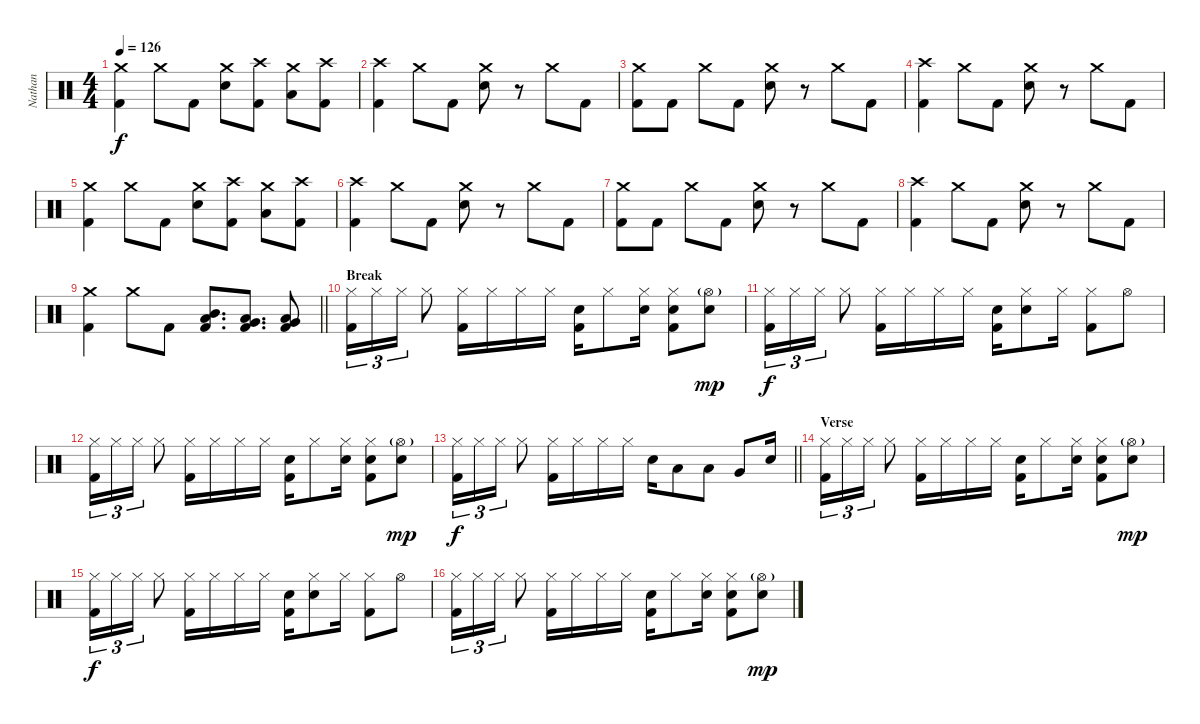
\track ("Nathan" "Nathan") {instrument percussion}
\staff {score}
\articulation defaults
\ts (4 4)
\tempo 126
\clef neutral
\ks c
("Crash medium (hit)" "Kick (hit) 2").4{dy f} "Crash medium (hit)".8 "Kick (hit) 2".8 ("Crash medium (hit)" "Electric Snare (hit)").8 ("Crash high (hit)" "Kick (hit) 2").8 ("Crash medium (hit)" "Low Floor Tom (hit)").8 ("Crash high (hit)" "Kick (hit) 2").8 |
("Crash high (hit)" "Kick (hit) 2").4 "Crash medium (hit)".8 "Kick (hit) 2".8 ("Crash medium (hit)" "Electric Snare (hit)").8 r.8 "Crash medium (hit)".8 "Kick (hit) 2".8 |
("Crash medium (hit)" "Kick (hit) 2").8 "Kick (hit) 2".8 "Crash medium (hit)".8 "Kick (hit) 2".8 ("Crash medium (hit)" "Electric Snare (hit)").8 r.8 "Crash medium (hit)".8 "Kick (hit) 2".8 |
("Crash high (hit)" "Kick (hit) 2").4 "Crash medium (hit)".8 "Kick (hit) 2".8 ("Crash medium (hit)" "Electric Snare (hit)").8 r.8 "Crash medium (hit)".8 "Kick (hit) 2".8 |
("Crash medium (hit)" "Kick (hit) 2").4 "Crash medium (hit)".8 "Kick (hit) 2".8 ("Crash medium (hit)" "Electric Snare (hit)").8 ("Crash high (hit)" "Kick (hit) 2").8 ("Crash medium (hit)" "Low Floor Tom (hit)").8 ("Crash high (hit)" "Kick (hit) 2").8 |
("Crash high (hit)" "Kick (hit) 2").4 "Crash medium (hit)".8 "Kick (hit) 2".8 ("Crash medium (hit)" "Electric Snare (hit)").8 r.8 "Crash medium (hit)".8 "Kick (hit) 2".8 |
("Crash medium (hit)" "Kick (hit) 2").8 "Kick (hit) 2".8 "Crash medium (hit)".8 "Kick (hit) 2".8 ("Crash medium (hit)" "Electric Snare (hit)").8 r.8 "Crash medium (hit)".8 "Kick (hit) 2".8 |
("Crash high (hit)" "Kick (hit) 2").4 "Crash medium (hit)".8 "Kick (hit) 2".8 ("Crash medium (hit)" "Electric Snare (hit)").8 r.8 "Crash medium (hit)".8 "Kick (hit) 2".8 |
\barLineRight lightlight
("Crash medium (hit)" "Kick (hit) 2").4 "Crash medium (hit)".8 "Kick (hit) 2".8 ("Mid Tom (hit)" "Low Tom (hit)" "Kick (hit) 2").8{d} ("Low Tom (hit)" "Very Low Tom (hit)" "Kick (hit) 2").8{d} ("Very Low Tom (hit)" "Low Floor Tom (hit)" "Kick (hit) 2").8 |
\section ("" "Break")
("Hi-Hat (closed)" "Kick (hit) 2").16{tu (3 2)} "Hi-Hat (closed)".16{tu (3 2)} "Hi-Hat (closed)".16{tu (3 2)} "Hi-Hat (closed)".8 ("Hi-Hat (closed)" "Kick (hit) 2").16 "Hi-Hat (closed)".16 "Hi-Hat (closed)".16 "Hi-Hat (closed)".16 ("Electric Snare (hit)" "Kick (hit) 2").16 "Hi-Hat (closed)".8 ("Hi-Hat (closed)" "Electric Snare (hit)").16 ("Hi-Hat (closed)" "Electric Snare (hit)" "Kick (hit) 2").8 ("Hi-Hat (open)"{g} "Electric Snare (hit)").8{dy mp} |
("Hi-Hat (closed)" "Kick (hit) 2").16{tu (3 2) dy f} "Hi-Hat (closed)".16{tu (3 2)} "Hi-Hat (closed)".16{tu (3 2)} "Hi-Hat (closed)".8 ("Hi-Hat (closed)" "Kick (hit) 2").16 "Hi-Hat (closed)".16 "Hi-Hat (closed)".16 "Hi-Hat (closed)".16 ("Electric Snare (hit)" "Kick (hit) 2").16 ("Hi-Hat (closed)" "Electric Snare (hit)").8 "Hi-Hat (closed)".16 ("Hi-Hat (closed)" "Kick (hit) 2").8 "Hi-Hat (open)".8 |
("Hi-Hat (closed)" "Kick (hit) 2").16{tu (3 2)} "Hi-Hat (closed)".16{tu (3 2)} "Hi-Hat (closed)".16{tu (3 2)} "Hi-Hat (closed)".8 ("Hi-Hat (closed)" "Kick (hit) 2").16 "Hi-Hat (closed)".16 "Hi-Hat (closed)".16 "Hi-Hat (closed)".16 ("Electric Snare (hit)" "Kick (hit) 2").16 "Hi-Hat (closed)".8 ("Hi-Hat (closed)" "Electric Snare (hit)").16 ("Hi-Hat (closed)" "Electric Snare (hit)" "Kick (hit) 2").8 ("Hi-Hat (open)"{g} "Electric Snare (hit)").8{dy mp} |
\barLineRight lightlight
("Hi-Hat (closed)" "Kick (hit) 2").16{tu (3 2) dy f} "Hi-Hat (closed)".16{tu (3 2)} "Hi-Hat (closed)".16{tu (3 2)} "Hi-Hat (closed)".8 ("Hi-Hat (closed)" "Kick (hit) 2").16 "Hi-Hat (closed)".16 "Hi-Hat (closed)".16 "Hi-Hat (closed)".16 "Electric Snare (hit)".16 "Low Tom (hit)".8 "Low Tom (hit)".8 "Very Low Tom (hit)".8 "Electric Snare (hit)".16 |
\section ("" "Verse")
("Hi-Hat (closed)" "Kick (hit) 2").16{tu (3 2)} "Hi-Hat (closed)".16{tu (3 2)} "Hi-Hat (closed)".16{tu (3 2)} "Hi-Hat (closed)".8 ("Hi-Hat (closed)" "Kick (hit) 2").16 "Hi-Hat (closed)".16 "Hi-Hat (closed)".16 "Hi-Hat (closed)".16 ("Electric Snare (hit)" "Kick (hit) 2").16 "Hi-Hat (closed)".8 ("Hi-Hat (closed)" "Electric Snare (hit)").16 ("Hi-Hat (closed)" "Electric Snare (hit)" "Kick (hit) 2").8 ("Hi-Hat (open)"{g} "Electric Snare (hit)").8{dy mp} |
("Hi-Hat (closed)" "Kick (hit) 2").16{tu (3 2) dy f} "Hi-Hat (closed)".16{tu (3 2)} "Hi-Hat (closed)".16{tu (3 2)} "Hi-Hat (closed)".8 ("Hi-Hat (closed)" "Kick (hit) 2").16 "Hi-Hat (closed)".16 "Hi-Hat (closed)".16 "Hi-Hat (closed)".16 ("Electric Snare (hit)" "Kick (hit) 2").16 ("Hi-Hat (closed)" "Electric Snare (hit)").8 "Hi-Hat (closed)".16 ("Hi-Hat (closed)" "Kick (hit) 2").8 "Hi-Hat (open)".8 |
("Hi-Hat (closed)" "Kick (hit) 2").16{tu (3 2)} "Hi-Hat (closed)".16{tu (3 2)} "Hi-Hat (closed)".16{tu (3 2)} "Hi-Hat (closed)".8 ("Hi-Hat (closed)" "Kick (hit) 2").16 "Hi-Hat (closed)".16 "Hi-Hat (closed)".16 "Hi-Hat (closed)".16 ("Electric Snare (hit)" "Kick (hit) 2").16 "Hi-Hat (closed)".8 ("Hi-Hat (closed)" "Electric Snare (hit)").16 ("Hi-Hat (closed)" "Electric Snare (hit)" "Kick (hit) 2").8 ("Hi-Hat (open)"{g} "Electric Snare (hit)").8{dy mp}
